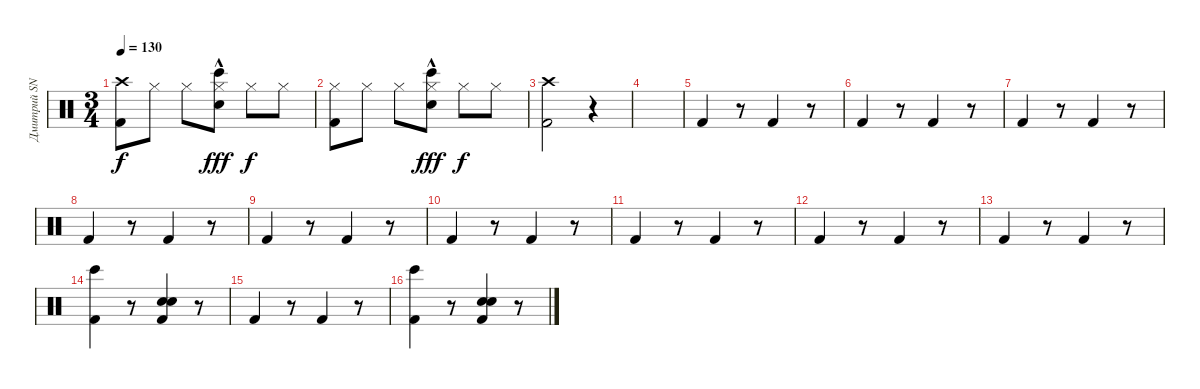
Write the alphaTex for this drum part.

\track ("Дмитрий SNAKE Хакимов" "Дмитрий SN") {instrument percussion}
\staff {score}
\articulation defaults
\ts (3 4)
\tempo 130
\clef neutral
\ks c
("Crash high (hit)" "Kick (hit) 2").8{dy f} "Hi-Hat (closed)".8 "Hi-Hat (closed)".8 ("Hi-Hat (closed)" "Snare (hit) 2"{hac} "Bongo High (hit)").8{dy fff} "Hi-Hat (closed)".8{dy f} "Hi-Hat (closed)".8 |
("Hi-Hat (closed)" "Kick (hit) 2").8 "Hi-Hat (closed)".8 "Hi-Hat (closed)".8 ("Hi-Hat (closed)" "Snare (hit) 2"{hac} "Bongo High (hit)").8{dy fff} "Hi-Hat (closed)".8{dy f} "Hi-Hat (closed)".8 |
("Crash high (hit)" "Kick (hit) 2").2 r.4 |
|
"Kick (hit) 2".4 r.8 "Kick (hit) 2".4 r.8 |
"Kick (hit) 2".4 r.8 "Kick (hit) 2".4 r.8 |
"Kick (hit) 2".4 r.8 "Kick (hit) 2".4 r.8 |
"Kick (hit) 2".4 r.8 "Kick (hit) 2".4 r.8 |
"Kick (hit) 2".4 r.8 "Kick (hit) 2".4 r.8 |
"Kick (hit) 2".4 r.8 "Kick (hit) 2".4 r.8 |
"Kick (hit) 2".4 r.8 "Kick (hit) 2".4 r.8 |
"Kick (hit) 2".4 r.8 "Kick (hit) 2".4 r.8 |
"Kick (hit) 2".4 r.8 "Kick (hit) 2".4 r.8 |
("Bongo High (hit)" "Kick (hit) 2").4 r.8 ("Electric Snare (hit)" "Snare (hit) 2" "Kick (hit) 2").4 r.8 |
"Kick (hit) 2".4 r.8 "Kick (hit) 2".4 r.8 |
("Bongo High (hit)" "Kick (hit) 2").4 r.8 ("Electric Snare (hit)" "Snare (hit) 2" "Kick (hit) 2").4 r.8
